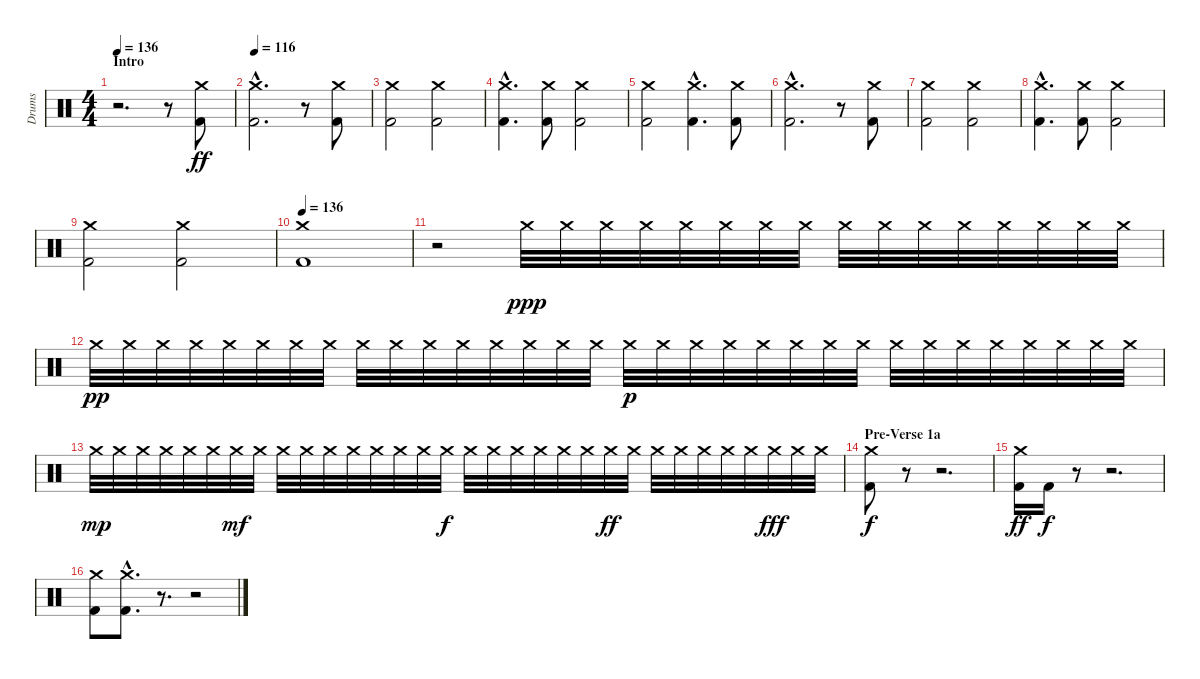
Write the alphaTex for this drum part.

\track ("Drums" "Drums") {instrument percussion}
\staff {score}
\articulation defaults
\ts (4 4)
\section ("" "Intro")
\tempo 136
\tempo 116
\tempo 136
\clef neutral
\ks c
r.2{d dy ff} r.8 ("Kick (hit) 2" "Crash medium (hit)").8 |
\tempo 116
("Kick (hit) 2"{hac} "Crash medium (hit)"{hac}).2{d} r.8 ("Kick (hit) 2" "Crash medium (hit)").8 |
("Kick (hit) 2" "Crash medium (hit)").2 ("Kick (hit) 2" "Crash medium (hit)").2 |
("Kick (hit) 2"{hac} "Crash medium (hit)"{hac}).4{d} ("Kick (hit) 2" "Crash medium (hit)").8 ("Kick (hit) 2" "Crash medium (hit)").2 |
("Kick (hit) 2" "Crash medium (hit)").2 ("Kick (hit) 2"{hac} "Crash medium (hit)"{hac}).4{d} ("Kick (hit) 2" "Crash medium (hit)").8 |
("Kick (hit) 2"{hac} "Crash medium (hit)"{hac}).2{d} r.8 ("Kick (hit) 2" "Crash medium (hit)").8 |
("Kick (hit) 2" "Crash medium (hit)").2 ("Kick (hit) 2" "Crash medium (hit)").2 |
("Kick (hit) 2"{hac} "Crash medium (hit)"{hac}).4{d} ("Kick (hit) 2" "Crash medium (hit)").8 ("Kick (hit) 2" "Crash medium (hit)").2 |
("Kick (hit) 2" "Crash medium (hit)").2 ("Kick (hit) 2" "Crash medium (hit)").2 |
\tempo 136
("Kick (hit) 2" "Crash medium (hit)").1 |
r.2 "Crash medium (hit)".32{dy ppp} "Crash medium (hit)".32 "Crash medium (hit)".32 "Crash medium (hit)".32 "Crash medium (hit)".32 "Crash medium (hit)".32 "Crash medium (hit)".32 "Crash medium (hit)".32 "Crash medium (hit)".32 "Crash medium (hit)".32 "Crash medium (hit)".32 "Crash medium (hit)".32 "Crash medium (hit)".32 "Crash medium (hit)".32 "Crash medium (hit)".32 "Crash medium (hit)".32 |
"Crash medium (hit)".32{dy pp} "Crash medium (hit)".32 "Crash medium (hit)".32 "Crash medium (hit)".32 "Crash medium (hit)".32 "Crash medium (hit)".32 "Crash medium (hit)".32 "Crash medium (hit)".32 "Crash medium (hit)".32 "Crash medium (hit)".32 "Crash medium (hit)".32 "Crash medium (hit)".32 "Crash medium (hit)".32 "Crash medium (hit)".32 "Crash medium (hit)".32 "Crash medium (hit)".32 "Crash medium (hit)".32{dy p} "Crash medium (hit)".32 "Crash medium (hit)".32 "Crash medium (hit)".32 "Crash medium (hit)".32 "Crash medium (hit)".32 "Crash medium (hit)".32 "Crash medium (hit)".32 "Crash medium (hit)".32 "Crash medium (hit)".32 "Crash medium (hit)".32 "Crash medium (hit)".32 "Crash medium (hit)".32 "Crash medium (hit)".32 "Crash medium (hit)".32 "Crash medium (hit)".32 |
"Crash medium (hit)".32{dy mp} "Crash medium (hit)".32 "Crash medium (hit)".32 "Crash medium (hit)".32 "Crash medium (hit)".32 "Crash medium (hit)".32 "Crash medium (hit)".32{dy mf} "Crash medium (hit)".32 "Crash medium (hit)".32 "Crash medium (hit)".32 "Crash medium (hit)".32 "Crash medium (hit)".32 "Crash medium (hit)".32 "Crash medium (hit)".32 "Crash medium (hit)".32 "Crash medium (hit)".32{dy f} "Crash medium (hit)".32 "Crash medium (hit)".32 "Crash medium (hit)".32 "Crash medium (hit)".32 "Crash medium (hit)".32 "Crash medium (hit)".32 "Crash medium (hit)".32{dy ff} "Crash medium (hit)".32 "Crash medium (hit)".32 "Crash medium (hit)".32 "Crash medium (hit)".32 "Crash medium (hit)".32 "Crash medium (hit)".32 "Crash medium (hit)".32{dy fff} "Crash medium (hit)".32 "Crash medium (hit)".32 |
\section ("" "Pre-Verse 1a")
("Kick (hit) 2" "Crash medium (hit)").8{dy f} r.8 r.2{d} |
("Kick (hit) 2" "Crash medium (hit)").16{dy ff} "Kick (hit) 2".16{dy f} r.8 r.2{d} |
("Kick (hit) 2" "Crash medium (hit)").8 ("Kick (hit) 2"{hac} "Crash medium (hit)"{hac}).8{d} r.8{d} r.2
